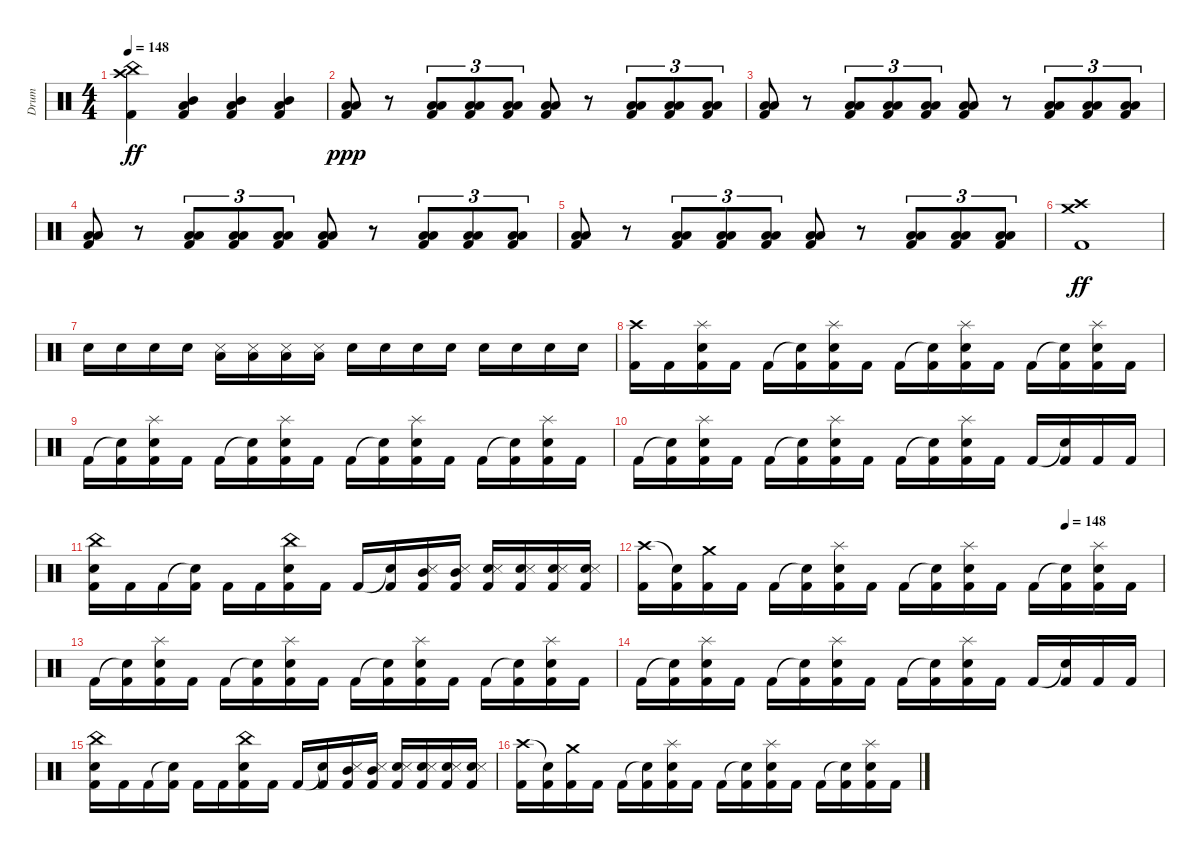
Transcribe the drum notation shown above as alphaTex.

\track ("Drum" "Drum") {instrument percussion}
\staff {score}
\articulation defaults
\ts (4 4)
\tempo 148
\clef neutral
\ks c
("Crash high (hit)" "China (hit)" "Kick (hit) 2").4{dy ff} ("Low Tom (hit)" "Mid Tom (hit)" "Kick (hit) 2").4 ("Low Tom (hit)" "Mid Tom (hit)" "Kick (hit) 2").4 ("Low Tom (hit)" "Mid Tom (hit)" "Kick (hit) 2").4 |
("Low Tom (hit)" "Low Floor Tom (hit)" "Kick (hit) 2").8{dy ppp} r.8 ("Low Tom (hit)" "Low Floor Tom (hit)" "Kick (hit) 2").8{tu (3 2)} ("Low Tom (hit)" "Low Floor Tom (hit)" "Kick (hit) 2").8{tu (3 2)} ("Low Tom (hit)" "Low Floor Tom (hit)" "Kick (hit) 2").8{tu (3 2)} ("Low Tom (hit)" "Low Floor Tom (hit)" "Kick (hit) 2").8 r.8 ("Low Tom (hit)" "Low Floor Tom (hit)" "Kick (hit) 2").8{tu (3 2)} ("Low Tom (hit)" "Low Floor Tom (hit)" "Kick (hit) 2").8{tu (3 2)} ("Low Tom (hit)" "Low Floor Tom (hit)" "Kick (hit) 2").8{tu (3 2)} |
("Low Tom (hit)" "Low Floor Tom (hit)" "Kick (hit) 2").8 r.8 ("Low Tom (hit)" "Low Floor Tom (hit)" "Kick (hit) 2").8{tu (3 2)} ("Low Tom (hit)" "Low Floor Tom (hit)" "Kick (hit) 2").8{tu (3 2)} ("Low Tom (hit)" "Low Floor Tom (hit)" "Kick (hit) 2").8{tu (3 2)} ("Low Tom (hit)" "Low Floor Tom (hit)" "Kick (hit) 2").8 r.8 ("Low Tom (hit)" "Low Floor Tom (hit)" "Kick (hit) 2").8{tu (3 2)} ("Low Tom (hit)" "Low Floor Tom (hit)" "Kick (hit) 2").8{tu (3 2)} ("Low Tom (hit)" "Low Floor Tom (hit)" "Kick (hit) 2").8{tu (3 2)} |
("Low Tom (hit)" "Low Floor Tom (hit)" "Kick (hit) 2").8 r.8 ("Low Tom (hit)" "Low Floor Tom (hit)" "Kick (hit) 2").8{tu (3 2)} ("Low Tom (hit)" "Low Floor Tom (hit)" "Kick (hit) 2").8{tu (3 2)} ("Low Tom (hit)" "Low Floor Tom (hit)" "Kick (hit) 2").8{tu (3 2)} ("Low Tom (hit)" "Low Floor Tom (hit)" "Kick (hit) 2").8 r.8 ("Low Tom (hit)" "Low Floor Tom (hit)" "Kick (hit) 2").8{tu (3 2)} ("Low Tom (hit)" "Low Floor Tom (hit)" "Kick (hit) 2").8{tu (3 2)} ("Low Tom (hit)" "Low Floor Tom (hit)" "Kick (hit) 2").8{tu (3 2)} |
("Low Tom (hit)" "Low Floor Tom (hit)" "Kick (hit) 2").8 r.8 ("Low Tom (hit)" "Low Floor Tom (hit)" "Kick (hit) 2").8{tu (3 2)} ("Low Tom (hit)" "Low Floor Tom (hit)" "Kick (hit) 2").8{tu (3 2)} ("Low Tom (hit)" "Low Floor Tom (hit)" "Kick (hit) 2").8{tu (3 2)} ("Low Tom (hit)" "Low Floor Tom (hit)" "Kick (hit) 2").8 r.8 ("Low Tom (hit)" "Low Floor Tom (hit)" "Kick (hit) 2").8{tu (3 2)} ("Low Tom (hit)" "Low Floor Tom (hit)" "Kick (hit) 2").8{tu (3 2)} ("Low Tom (hit)" "Low Floor Tom (hit)" "Kick (hit) 2").8{tu (3 2)} |
("Crash medium (hit)" "Crash high (hit)" "Kick (hit) 2").1{dy ff} |
"Snare (hit) 2".16 "Snare (hit) 2".16 "Snare (hit) 2".16 "Snare (hit) 2".16 ("Low Tom (hit)" "Snare (side stick) 3").16 ("Low Tom (hit)" "Snare (side stick) 3").16 ("Low Tom (hit)" "Snare (side stick) 3").16 ("Low Tom (hit)" "Snare (side stick) 3").16 "Snare (hit) 2".16 "Snare (hit) 2".16 "Snare (hit) 2".16 "Snare (hit) 2".16 "Snare (hit) 2".16 "Snare (hit) 2".16 "Snare (hit) 2".16 "Snare (hit) 2".16 |
("Crash high (hit)" "Kick (hit) 2").16 "Kick (hit) 2".16 ("Splash (hit)" "Snare (hit) 2" "Kick (hit) 2").16 "Kick (hit) 2".16 "Kick (hit) 2".16 ("Snare (hit)"{t} "Kick (hit) 2").16 ("Splash (hit)" "Snare (hit) 2" "Kick (hit) 2").16 "Kick (hit) 2".16 "Kick (hit) 2".16 ("Snare (hit)"{t} "Kick (hit) 2").16 ("Splash (hit)" "Snare (hit) 2" "Kick (hit) 2").16 "Kick (hit) 2".16 "Kick (hit) 2".16 ("Snare (hit)"{t} "Kick (hit) 2").16 ("Splash (hit)" "Snare (hit) 2" "Kick (hit) 2").16 "Kick (hit) 2".16 |
"Kick (hit) 2".16 ("Snare (hit)"{t} "Kick (hit) 2").16 ("Splash (hit)" "Snare (hit) 2" "Kick (hit) 2").16 "Kick (hit) 2".16 "Kick (hit) 2".16 ("Snare (hit)"{t} "Kick (hit) 2").16 ("Splash (hit)" "Snare (hit) 2" "Kick (hit) 2").16 "Kick (hit) 2".16 "Kick (hit) 2".16 ("Snare (hit)"{t} "Kick (hit) 2").16 ("Splash (hit)" "Snare (hit) 2" "Kick (hit) 2").16 "Kick (hit) 2".16 "Kick (hit) 2".16 ("Snare (hit)"{t} "Kick (hit) 2").16 ("Splash (hit)" "Snare (hit) 2" "Kick (hit) 2").16 "Kick (hit) 2".16 |
"Kick (hit) 2".16 ("Snare (hit)"{t} "Kick (hit) 2").16 ("Splash (hit)" "Snare (hit) 2" "Kick (hit) 2").16 "Kick (hit) 2".16 "Kick (hit) 2".16 ("Snare (hit)"{t} "Kick (hit) 2").16 ("Splash (hit)" "Snare (hit) 2" "Kick (hit) 2").16 "Kick (hit) 2".16 "Kick (hit) 2".16 ("Snare (hit)"{t} "Kick (hit) 2").16 ("Splash (hit)" "Snare (hit) 2" "Kick (hit) 2").16 "Kick (hit) 2".16 "Kick (hit) 2".16 ("Snare (hit)"{t} "Kick (hit) 2").16 "Kick (hit) 2".16 "Kick (hit) 2".16 |
("China (hit)" "Snare (hit) 2" "Kick (hit) 2").16 "Kick (hit) 2".16 "Kick (hit) 2".16 ("Snare (hit)"{t} "Kick (hit) 2").16 "Kick (hit) 2".16 "Kick (hit) 2".16 ("China (hit)" "Snare (hit) 2" "Kick (hit) 2").16 "Kick (hit) 2".16 "Kick (hit) 2".16 ("Snare (hit)"{t} "Kick (hit) 2").16 ("Mid Tom (hit)" "Snare (side stick) 3" "Kick (hit) 2").16 ("Mid Tom (hit)" "Snare (side stick) 3" "Kick (hit) 2").16 ("Snare (hit) 2" "Snare (side stick) 3" "Kick (hit) 2").16 ("Snare (hit) 2" "Snare (side stick) 3" "Kick (hit) 2").16 ("Snare (hit) 2" "Snare (side stick) 3" "Kick (hit) 2").16 ("Snare (hit) 2" "Snare (side stick) 3" "Kick (hit) 2").16 |
\tempo (148 0.8125)
("Crash high (hit)" "Kick (hit) 2").16 ("Snare (hit)"{t} "Kick (hit) 2").16 ("Crash medium (hit)" "Kick (hit) 2").16 "Kick (hit) 2".16 "Kick (hit) 2".16 ("Snare (hit)"{t} "Kick (hit) 2").16 ("Splash (hit)" "Snare (hit) 2" "Kick (hit) 2").16 "Kick (hit) 2".16 "Kick (hit) 2".16 ("Snare (hit)"{t} "Kick (hit) 2").16 ("Splash (hit)" "Snare (hit) 2" "Kick (hit) 2").16 "Kick (hit) 2".16 "Kick (hit) 2".16 ("Snare (hit)"{t} "Kick (hit) 2").16 ("Splash (hit)" "Snare (hit) 2" "Kick (hit) 2").16 "Kick (hit) 2".16 |
"Kick (hit) 2".16 ("Snare (hit)"{t} "Kick (hit) 2").16 ("Splash (hit)" "Snare (hit) 2" "Kick (hit) 2").16 "Kick (hit) 2".16 "Kick (hit) 2".16 ("Snare (hit)"{t} "Kick (hit) 2").16 ("Splash (hit)" "Snare (hit) 2" "Kick (hit) 2").16 "Kick (hit) 2".16 "Kick (hit) 2".16 ("Snare (hit)"{t} "Kick (hit) 2").16 ("Splash (hit)" "Snare (hit) 2" "Kick (hit) 2").16 "Kick (hit) 2".16 "Kick (hit) 2".16 ("Snare (hit)"{t} "Kick (hit) 2").16 ("Splash (hit)" "Snare (hit) 2" "Kick (hit) 2").16 "Kick (hit) 2".16 |
"Kick (hit) 2".16 ("Snare (hit)"{t} "Kick (hit) 2").16 ("Splash (hit)" "Snare (hit) 2" "Kick (hit) 2").16 "Kick (hit) 2".16 "Kick (hit) 2".16 ("Snare (hit)"{t} "Kick (hit) 2").16 ("Splash (hit)" "Snare (hit) 2" "Kick (hit) 2").16 "Kick (hit) 2".16 "Kick (hit) 2".16 ("Snare (hit)"{t} "Kick (hit) 2").16 ("Splash (hit)" "Snare (hit) 2" "Kick (hit) 2").16 "Kick (hit) 2".16 "Kick (hit) 2".16 ("Snare (hit)"{t} "Kick (hit) 2").16 "Kick (hit) 2".16 "Kick (hit) 2".16 |
("China (hit)" "Snare (hit) 2" "Kick (hit) 2").16 "Kick (hit) 2".16 "Kick (hit) 2".16 ("Snare (hit)"{t} "Kick (hit) 2").16 "Kick (hit) 2".16 "Kick (hit) 2".16 ("China (hit)" "Snare (hit) 2" "Kick (hit) 2").16 "Kick (hit) 2".16 "Kick (hit) 2".16 ("Snare (hit)"{t} "Kick (hit) 2").16 ("Mid Tom (hit)" "Snare (side stick) 3" "Kick (hit) 2").16 ("Mid Tom (hit)" "Snare (side stick) 3" "Kick (hit) 2").16 ("Snare (hit) 2" "Snare (side stick) 3" "Kick (hit) 2").16 ("Snare (hit) 2" "Snare (side stick) 3" "Kick (hit) 2").16 ("Snare (hit) 2" "Snare (side stick) 3" "Kick (hit) 2").16 ("Snare (hit) 2" "Snare (side stick) 3" "Kick (hit) 2").16 |
("Crash high (hit)" "Kick (hit) 2").16 ("Snare (hit)"{t} "Kick (hit) 2").16 ("Crash medium (hit)" "Kick (hit) 2").16 "Kick (hit) 2".16 "Kick (hit) 2".16 ("Snare (hit)"{t} "Kick (hit) 2").16 ("Splash (hit)" "Snare (hit) 2" "Kick (hit) 2").16 "Kick (hit) 2".16 "Kick (hit) 2".16 ("Snare (hit)"{t} "Kick (hit) 2").16 ("Splash (hit)" "Snare (hit) 2" "Kick (hit) 2").16 "Kick (hit) 2".16 "Kick (hit) 2".16 ("Snare (hit)"{t} "Kick (hit) 2").16 ("Splash (hit)" "Snare (hit) 2" "Kick (hit) 2").16 "Kick (hit) 2".16
